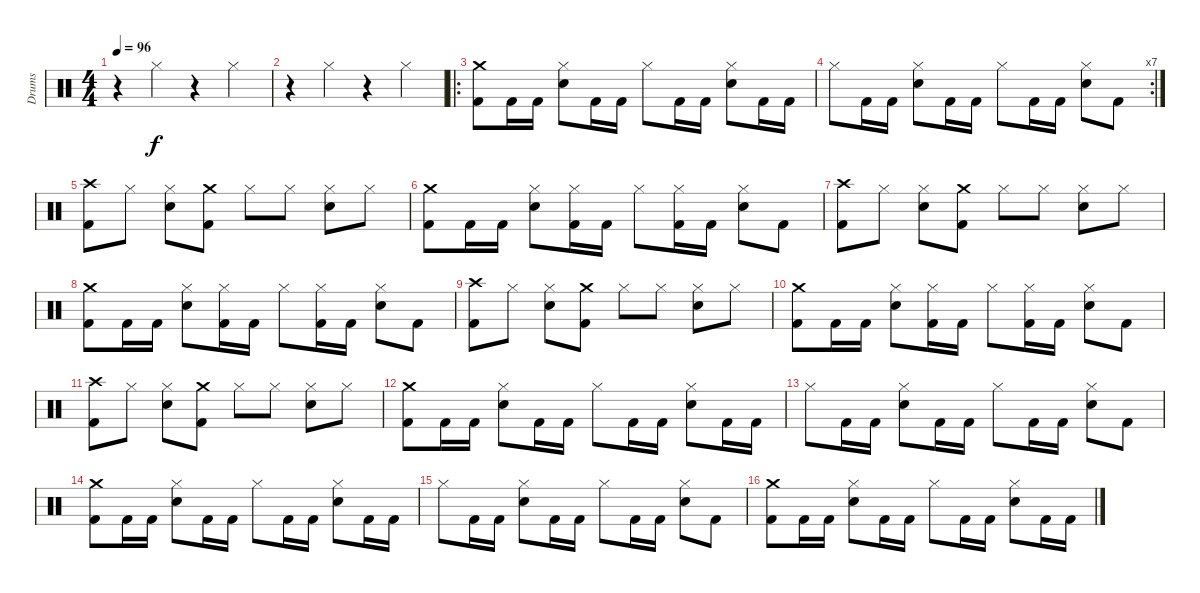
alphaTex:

\track ("Drums" "Drums") {instrument percussion}
\staff {score}
\articulation defaults
\ts (4 4)
\tempo 96
\clef neutral
\ks c
r.4{dy f} "Hi-Hat (closed)".4 r.4 "Hi-Hat (closed)".4 |
r.4 "Hi-Hat (closed)".4 r.4 "Hi-Hat (closed)".4 |
\ro
("Crash medium (hit)" "Kick (hit) 2").8 "Kick (hit) 2".16 "Kick (hit) 2".16 ("Hi-Hat (closed)" "Snare (hit) 2").8 "Kick (hit) 2".16 "Kick (hit) 2".16 "Hi-Hat (closed)".8 "Kick (hit) 2".16 "Kick (hit) 2".16 ("Hi-Hat (closed)" "Snare (hit) 2").8 "Kick (hit) 2".16 "Kick (hit) 2".16 |
\rc 7 "Hi-Hat (closed)".8 "Kick (hit) 2".16 "Kick (hit) 2".16
("Hi-Hat (closed)" "Snare (hit) 2").8 "Kick (hit) 2".16 "Kick (hit) 2".16 "Hi-Hat (closed)".8 "Kick (hit) 2".16 "Kick (hit) 2".16 ("Hi-Hat (closed)" "Snare (hit) 2").8 "Kick (hit) 2".8 |
("Crash high (hit)" "Kick (hit) 2").8 "Hi-Hat (closed)".8 ("Hi-Hat (closed)" "Snare (hit) 2").8 ("Crash medium (hit)" "Kick (hit) 2").8 "Hi-Hat (closed)".8 "Hi-Hat (closed)".8 ("Hi-Hat (closed)" "Snare (hit) 2").8 "Hi-Hat (closed)".8 |
("Crash medium (hit)" "Kick (hit) 2").8 "Kick (hit) 2".16 "Kick (hit) 2".16 ("Hi-Hat (closed)" "Snare (hit) 2").8 ("Hi-Hat (closed)" "Kick (hit) 2").16 "Kick (hit) 2".16 "Hi-Hat (closed)".8 ("Hi-Hat (closed)" "Kick (hit) 2").16 "Kick (hit) 2".16 ("Hi-Hat (closed)" "Snare (hit) 2").8 "Kick (hit) 2".8 |
("Crash high (hit)" "Kick (hit) 2").8 "Hi-Hat (closed)".8 ("Hi-Hat (closed)" "Snare (hit) 2").8 ("Crash medium (hit)" "Kick (hit) 2").8 "Hi-Hat (closed)".8 "Hi-Hat (closed)".8 ("Hi-Hat (closed)" "Snare (hit) 2").8 "Hi-Hat (closed)".8 |
("Crash medium (hit)" "Kick (hit) 2").8 "Kick (hit) 2".16 "Kick (hit) 2".16 ("Hi-Hat (closed)" "Snare (hit) 2").8 ("Hi-Hat (closed)" "Kick (hit) 2").16 "Kick (hit) 2".16 "Hi-Hat (closed)".8 ("Hi-Hat (closed)" "Kick (hit) 2").16 "Kick (hit) 2".16 ("Hi-Hat (closed)" "Snare (hit) 2").8 "Kick (hit) 2".8 |
("Crash high (hit)" "Kick (hit) 2").8 "Hi-Hat (closed)".8 ("Hi-Hat (closed)" "Snare (hit) 2").8 ("Crash medium (hit)" "Kick (hit) 2").8 "Hi-Hat (closed)".8 "Hi-Hat (closed)".8 ("Hi-Hat (closed)" "Snare (hit) 2").8 "Hi-Hat (closed)".8 |
("Crash medium (hit)" "Kick (hit) 2").8 "Kick (hit) 2".16 "Kick (hit) 2".16 ("Hi-Hat (closed)" "Snare (hit) 2").8 ("Hi-Hat (closed)" "Kick (hit) 2").16 "Kick (hit) 2".16 "Hi-Hat (closed)".8 ("Hi-Hat (closed)" "Kick (hit) 2").16 "Kick (hit) 2".16 ("Hi-Hat (closed)" "Snare (hit) 2").8 "Kick (hit) 2".8 |
("Crash high (hit)" "Kick (hit) 2").8 "Hi-Hat (closed)".8 ("Hi-Hat (closed)" "Snare (hit) 2").8 ("Crash medium (hit)" "Kick (hit) 2").8 "Hi-Hat (closed)".8 "Hi-Hat (closed)".8 ("Hi-Hat (closed)" "Snare (hit) 2").8 "Hi-Hat (closed)".8 |
("Crash medium (hit)" "Kick (hit) 2").8 "Kick (hit) 2".16 "Kick (hit) 2".16 ("Hi-Hat (closed)" "Snare (hit) 2").8 "Kick (hit) 2".16 "Kick (hit) 2".16 "Hi-Hat (closed)".8 "Kick (hit) 2".16 "Kick (hit) 2".16 ("Hi-Hat (closed)" "Snare (hit) 2").8 "Kick (hit) 2".16 "Kick (hit) 2".16 |
"Hi-Hat (closed)".8 "Kick (hit) 2".16 "Kick (hit) 2".16 ("Hi-Hat (closed)" "Snare (hit) 2").8 "Kick (hit) 2".16 "Kick (hit) 2".16 "Hi-Hat (closed)".8 "Kick (hit) 2".16 "Kick (hit) 2".16 ("Hi-Hat (closed)" "Snare (hit) 2").8 "Kick (hit) 2".8 |
("Crash medium (hit)" "Kick (hit) 2").8 "Kick (hit) 2".16 "Kick (hit) 2".16 ("Hi-Hat (closed)" "Snare (hit) 2").8 "Kick (hit) 2".16 "Kick (hit) 2".16 "Hi-Hat (closed)".8 "Kick (hit) 2".16 "Kick (hit) 2".16 ("Hi-Hat (closed)" "Snare (hit) 2").8 "Kick (hit) 2".16 "Kick (hit) 2".16 |
"Hi-Hat (closed)".8 "Kick (hit) 2".16 "Kick (hit) 2".16 ("Hi-Hat (closed)" "Snare (hit) 2").8 "Kick (hit) 2".16 "Kick (hit) 2".16 "Hi-Hat (closed)".8 "Kick (hit) 2".16 "Kick (hit) 2".16 ("Hi-Hat (closed)" "Snare (hit) 2").8 "Kick (hit) 2".8 |
("Crash medium (hit)" "Kick (hit) 2").8 "Kick (hit) 2".16 "Kick (hit) 2".16 ("Hi-Hat (closed)" "Snare (hit) 2").8 "Kick (hit) 2".16 "Kick (hit) 2".16 "Hi-Hat (closed)".8 "Kick (hit) 2".16 "Kick (hit) 2".16 ("Hi-Hat (closed)" "Snare (hit) 2").8 "Kick (hit) 2".16 "Kick (hit) 2".16
